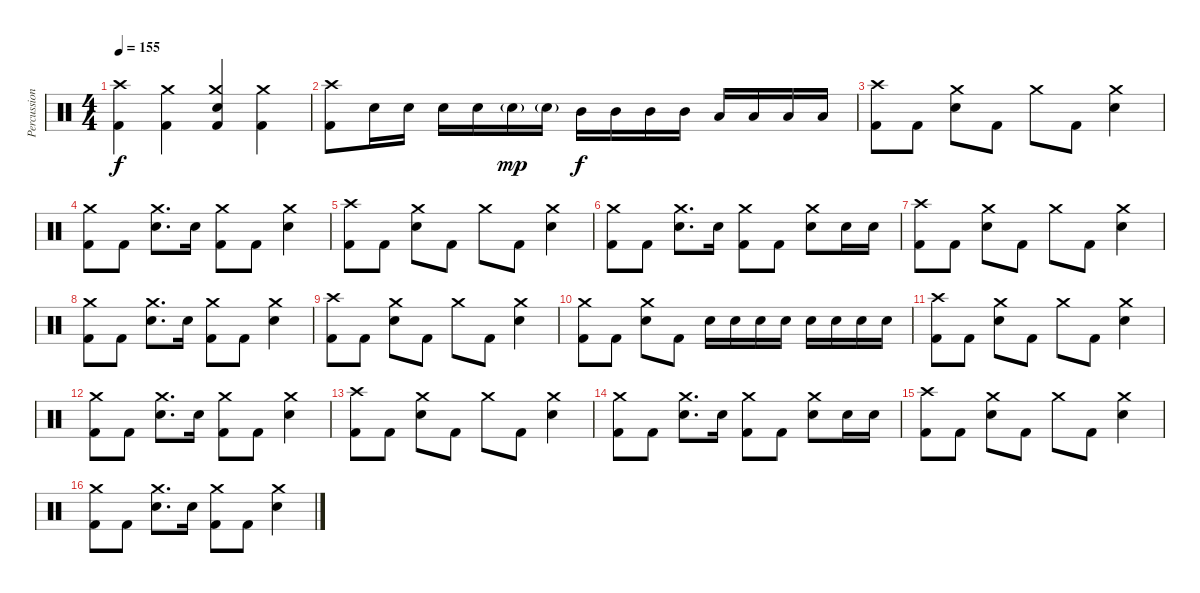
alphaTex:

\track ("Percussion" "Percussion") {instrument percussion}
\staff {score}
\articulation defaults
\ts (4 4)
\tempo 155
\clef neutral
\ks c
("Crash high (hit)" "Kick (hit) 2").4{dy f} ("Crash medium (hit)" "Kick (hit) 2").4 ("Crash medium (hit)" "Electric Snare (hit)" "Kick (hit) 2").4 ("Crash medium (hit)" "Kick (hit) 2").4 |
("Crash high (hit)" "Kick (hit) 2").8 "Electric Snare (hit)".16 "Electric Snare (hit)".16 "Electric Snare (hit)".16 "Electric Snare (hit)".16 "Electric Snare (hit)"{g}.16{dy mp} "Electric Snare (hit)"{g}.16 "Mid Tom (hit)".16{dy f} "Mid Tom (hit)".16 "Mid Tom (hit)".16 "Mid Tom (hit)".16 "Low Tom (hit)".16 "Low Tom (hit)".16 "Low Tom (hit)".16 "Low Tom (hit)".16 |
("Crash high (hit)" "Kick (hit) 2").8 "Kick (hit) 2".8 ("Crash medium (hit)" "Electric Snare (hit)").8 "Kick (hit) 2".8 "Crash medium (hit)".8 "Kick (hit) 2".8 ("Crash medium (hit)" "Electric Snare (hit)").4 |
("Crash medium (hit)" "Kick (hit) 2").8 "Kick (hit) 2".8 ("Crash medium (hit)" "Electric Snare (hit)").8{d} "Electric Snare (hit)".16 ("Crash medium (hit)" "Kick (hit) 2").8 "Kick (hit) 2".8 ("Crash medium (hit)" "Electric Snare (hit)").4 |
("Crash high (hit)" "Kick (hit) 2").8 "Kick (hit) 2".8 ("Crash medium (hit)" "Electric Snare (hit)").8 "Kick (hit) 2".8 "Crash medium (hit)".8 "Kick (hit) 2".8 ("Crash medium (hit)" "Electric Snare (hit)").4 |
("Crash medium (hit)" "Kick (hit) 2").8 "Kick (hit) 2".8 ("Crash medium (hit)" "Electric Snare (hit)").8{d} "Electric Snare (hit)".16 ("Crash medium (hit)" "Kick (hit) 2").8 "Kick (hit) 2".8 ("Crash medium (hit)" "Electric Snare (hit)").8 "Electric Snare (hit)".16 "Electric Snare (hit)".16 |
("Crash high (hit)" "Kick (hit) 2").8 "Kick (hit) 2".8 ("Crash medium (hit)" "Electric Snare (hit)").8 "Kick (hit) 2".8 "Crash medium (hit)".8 "Kick (hit) 2".8 ("Crash medium (hit)" "Electric Snare (hit)").4 |
("Crash medium (hit)" "Kick (hit) 2").8 "Kick (hit) 2".8 ("Crash medium (hit)" "Electric Snare (hit)").8{d} "Electric Snare (hit)".16 ("Crash medium (hit)" "Kick (hit) 2").8 "Kick (hit) 2".8 ("Crash medium (hit)" "Electric Snare (hit)").4 |
("Crash high (hit)" "Kick (hit) 2").8 "Kick (hit) 2".8 ("Crash medium (hit)" "Electric Snare (hit)").8 "Kick (hit) 2".8 "Crash medium (hit)".8 "Kick (hit) 2".8 ("Crash medium (hit)" "Electric Snare (hit)").4 |
("Crash medium (hit)" "Kick (hit) 2").8 "Kick (hit) 2".8 ("Crash medium (hit)" "Electric Snare (hit)").8 "Kick (hit) 2".8 "Electric Snare (hit)".16 "Electric Snare (hit)".16 "Electric Snare (hit)".16 "Electric Snare (hit)".16 "Electric Snare (hit)".16 "Electric Snare (hit)".16 "Electric Snare (hit)".16 "Electric Snare (hit)".16 |
("Crash high (hit)" "Kick (hit) 2").8 "Kick (hit) 2".8 ("Crash medium (hit)" "Electric Snare (hit)").8 "Kick (hit) 2".8 "Crash medium (hit)".8 "Kick (hit) 2".8 ("Crash medium (hit)" "Electric Snare (hit)").4 |
("Crash medium (hit)" "Kick (hit) 2").8 "Kick (hit) 2".8 ("Crash medium (hit)" "Electric Snare (hit)").8{d} "Electric Snare (hit)".16 ("Crash medium (hit)" "Kick (hit) 2").8 "Kick (hit) 2".8 ("Crash medium (hit)" "Electric Snare (hit)").4 |
("Crash high (hit)" "Kick (hit) 2").8 "Kick (hit) 2".8 ("Crash medium (hit)" "Electric Snare (hit)").8 "Kick (hit) 2".8 "Crash medium (hit)".8 "Kick (hit) 2".8 ("Crash medium (hit)" "Electric Snare (hit)").4 |
("Crash medium (hit)" "Kick (hit) 2").8 "Kick (hit) 2".8 ("Crash medium (hit)" "Electric Snare (hit)").8{d} "Electric Snare (hit)".16 ("Crash medium (hit)" "Kick (hit) 2").8 "Kick (hit) 2".8 ("Crash medium (hit)" "Electric Snare (hit)").8 "Electric Snare (hit)".16 "Electric Snare (hit)".16 |
("Crash high (hit)" "Kick (hit) 2").8 "Kick (hit) 2".8 ("Crash medium (hit)" "Electric Snare (hit)").8 "Kick (hit) 2".8 "Crash medium (hit)".8 "Kick (hit) 2".8 ("Crash medium (hit)" "Electric Snare (hit)").4 |
("Crash medium (hit)" "Kick (hit) 2").8 "Kick (hit) 2".8 ("Crash medium (hit)" "Electric Snare (hit)").8{d} "Electric Snare (hit)".16 ("Crash medium (hit)" "Kick (hit) 2").8 "Kick (hit) 2".8 ("Crash medium (hit)" "Electric Snare (hit)").4
